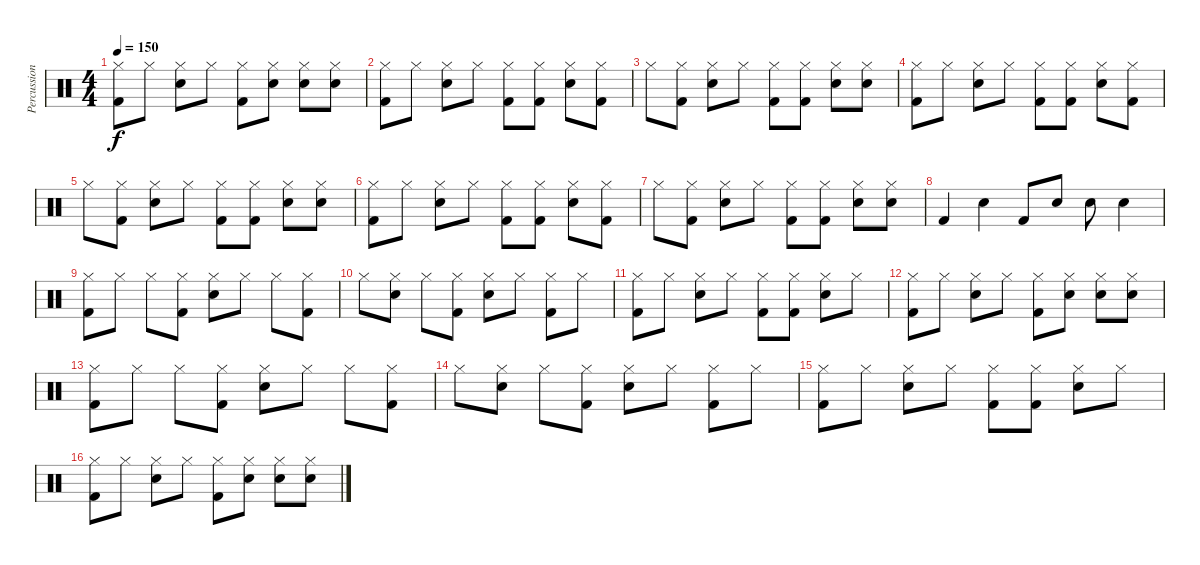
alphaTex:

\track ("Percussion" "Percussion") {instrument percussion}
\staff {score}
\articulation defaults
\ts (4 4)
\tempo 150
\clef neutral
\ks c
("Hi-Hat (closed)" "Kick (hit) 2").8{dy f} "Hi-Hat (closed)".8 ("Hi-Hat (closed)" "Electric Snare (hit)").8 "Hi-Hat (closed)".8 ("Hi-Hat (closed)" "Kick (hit) 2").8 ("Hi-Hat (closed)" "Electric Snare (hit)").8 ("Hi-Hat (closed)" "Electric Snare (hit)").8 ("Hi-Hat (closed)" "Electric Snare (hit)").8 |
("Hi-Hat (closed)" "Kick (hit) 2").8 "Hi-Hat (closed)".8 ("Hi-Hat (closed)" "Electric Snare (hit)").8 "Hi-Hat (closed)".8 ("Hi-Hat (closed)" "Kick (hit) 2").8 ("Hi-Hat (closed)" "Kick (hit) 2").8 ("Hi-Hat (closed)" "Electric Snare (hit)").8 ("Hi-Hat (closed)" "Kick (hit) 2").8 |
"Hi-Hat (closed)".8 ("Hi-Hat (closed)" "Kick (hit) 2").8 ("Hi-Hat (closed)" "Electric Snare (hit)").8 "Hi-Hat (closed)".8 ("Hi-Hat (closed)" "Kick (hit) 2").8 ("Hi-Hat (closed)" "Kick (hit) 2").8 ("Hi-Hat (closed)" "Electric Snare (hit)").8 ("Hi-Hat (closed)" "Electric Snare (hit)").8 |
("Hi-Hat (closed)" "Kick (hit) 2").8 "Hi-Hat (closed)".8 ("Hi-Hat (closed)" "Electric Snare (hit)").8 "Hi-Hat (closed)".8 ("Hi-Hat (closed)" "Kick (hit) 2").8 ("Hi-Hat (closed)" "Kick (hit) 2").8 ("Hi-Hat (closed)" "Electric Snare (hit)").8 ("Hi-Hat (closed)" "Kick (hit) 2").8 |
"Hi-Hat (closed)".8 ("Hi-Hat (closed)" "Kick (hit) 2").8 ("Hi-Hat (closed)" "Electric Snare (hit)").8 "Hi-Hat (closed)".8 ("Hi-Hat (closed)" "Kick (hit) 2").8 ("Hi-Hat (closed)" "Kick (hit) 2").8 ("Hi-Hat (closed)" "Electric Snare (hit)").8 ("Hi-Hat (closed)" "Electric Snare (hit)").8 |
("Hi-Hat (closed)" "Kick (hit) 2").8 "Hi-Hat (closed)".8 ("Hi-Hat (closed)" "Electric Snare (hit)").8 "Hi-Hat (closed)".8 ("Hi-Hat (closed)" "Kick (hit) 2").8 ("Hi-Hat (closed)" "Kick (hit) 2").8 ("Hi-Hat (closed)" "Electric Snare (hit)").8 ("Hi-Hat (closed)" "Kick (hit) 2").8 |
"Hi-Hat (closed)".8 ("Hi-Hat (closed)" "Kick (hit) 2").8 ("Hi-Hat (closed)" "Electric Snare (hit)").8 "Hi-Hat (closed)".8 ("Hi-Hat (closed)" "Kick (hit) 2").8 ("Hi-Hat (closed)" "Kick (hit) 2").8 ("Hi-Hat (closed)" "Electric Snare (hit)").8 ("Hi-Hat (closed)" "Electric Snare (hit)").8 |
"Kick (hit) 2".4 "Electric Snare (hit)".4 "Kick (hit) 2".8 "Electric Snare (hit)".8 "Electric Snare (hit)".8 "Electric Snare (hit)".4 |
("Hi-Hat (closed)" "Kick (hit) 2").8 "Hi-Hat (closed)".8 "Hi-Hat (closed)".8 ("Hi-Hat (closed)" "Kick (hit) 2").8 ("Hi-Hat (closed)" "Electric Snare (hit)").8 "Hi-Hat (closed)".8 "Hi-Hat (closed)".8 ("Hi-Hat (closed)" "Kick (hit) 2").8 |
"Hi-Hat (closed)".8 ("Hi-Hat (closed)" "Electric Snare (hit)").8 "Hi-Hat (closed)".8 ("Hi-Hat (closed)" "Kick (hit) 2").8 ("Hi-Hat (closed)" "Electric Snare (hit)").8 "Hi-Hat (closed)".8 ("Hi-Hat (closed)" "Kick (hit) 2").8 "Hi-Hat (closed)".8 |
("Hi-Hat (closed)" "Kick (hit) 2").8 "Hi-Hat (closed)".8 ("Hi-Hat (closed)" "Electric Snare (hit)").8 "Hi-Hat (closed)".8 ("Hi-Hat (closed)" "Kick (hit) 2").8 ("Hi-Hat (closed)" "Kick (hit) 2").8 ("Hi-Hat (closed)" "Electric Snare (hit)").8 "Hi-Hat (closed)".8 |
("Hi-Hat (closed)" "Kick (hit) 2").8 "Hi-Hat (closed)".8 ("Hi-Hat (closed)" "Electric Snare (hit)").8 "Hi-Hat (closed)".8 ("Hi-Hat (closed)" "Kick (hit) 2").8 ("Hi-Hat (closed)" "Electric Snare (hit)").8 ("Hi-Hat (closed)" "Electric Snare (hit)").8 ("Hi-Hat (closed)" "Electric Snare (hit)").8 |
("Hi-Hat (closed)" "Kick (hit) 2").8 "Hi-Hat (closed)".8 "Hi-Hat (closed)".8 ("Hi-Hat (closed)" "Kick (hit) 2").8 ("Hi-Hat (closed)" "Electric Snare (hit)").8 "Hi-Hat (closed)".8 "Hi-Hat (closed)".8 ("Hi-Hat (closed)" "Kick (hit) 2").8 |
"Hi-Hat (closed)".8 ("Hi-Hat (closed)" "Electric Snare (hit)").8 "Hi-Hat (closed)".8 ("Hi-Hat (closed)" "Kick (hit) 2").8 ("Hi-Hat (closed)" "Electric Snare (hit)").8 "Hi-Hat (closed)".8 ("Hi-Hat (closed)" "Kick (hit) 2").8 "Hi-Hat (closed)".8 |
("Hi-Hat (closed)" "Kick (hit) 2").8 "Hi-Hat (closed)".8 ("Hi-Hat (closed)" "Electric Snare (hit)").8 "Hi-Hat (closed)".8 ("Hi-Hat (closed)" "Kick (hit) 2").8 ("Hi-Hat (closed)" "Kick (hit) 2").8 ("Hi-Hat (closed)" "Electric Snare (hit)").8 "Hi-Hat (closed)".8 |
("Hi-Hat (closed)" "Kick (hit) 2").8 "Hi-Hat (closed)".8 ("Hi-Hat (closed)" "Electric Snare (hit)").8 "Hi-Hat (closed)".8 ("Hi-Hat (closed)" "Kick (hit) 2").8 ("Hi-Hat (closed)" "Electric Snare (hit)").8 ("Hi-Hat (closed)" "Electric Snare (hit)").8 ("Hi-Hat (closed)" "Electric Snare (hit)").8
